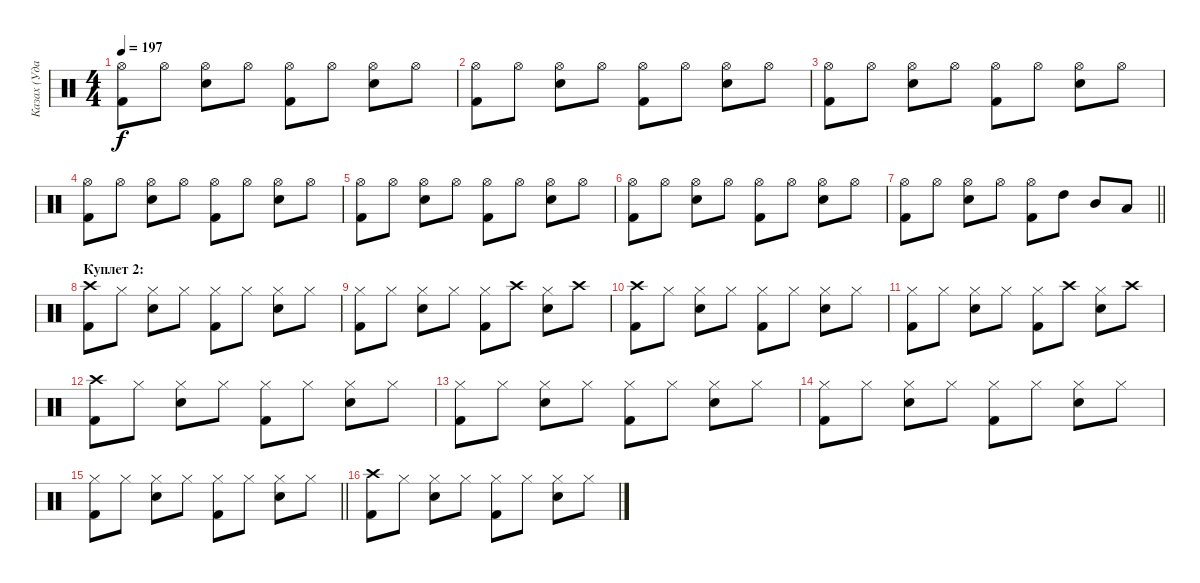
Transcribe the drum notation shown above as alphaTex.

\track ("Казах (Ударные)" "Казах (Уда") {instrument percussion}
\staff {score}
\articulation defaults
\ts (4 4)
\tempo 197
\clef neutral
\ks c
("Hi-Hat (open)" "Kick (hit) 2").8{dy f} "Hi-Hat (open)".8 ("Hi-Hat (open)" "Electric Snare (hit)").8 "Hi-Hat (open)".8 ("Hi-Hat (open)" "Kick (hit) 2").8 "Hi-Hat (open)".8 ("Hi-Hat (open)" "Electric Snare (hit)").8 "Hi-Hat (open)".8 |
("Hi-Hat (open)" "Kick (hit) 2").8 "Hi-Hat (open)".8 ("Hi-Hat (open)" "Electric Snare (hit)").8 "Hi-Hat (open)".8 ("Hi-Hat (open)" "Kick (hit) 2").8 "Hi-Hat (open)".8 ("Hi-Hat (open)" "Electric Snare (hit)").8 "Hi-Hat (open)".8 |
("Hi-Hat (open)" "Kick (hit) 2").8 "Hi-Hat (open)".8 ("Hi-Hat (open)" "Electric Snare (hit)").8 "Hi-Hat (open)".8 ("Hi-Hat (open)" "Kick (hit) 2").8 "Hi-Hat (open)".8 ("Hi-Hat (open)" "Electric Snare (hit)").8 "Hi-Hat (open)".8 |
("Hi-Hat (open)" "Kick (hit) 2").8 "Hi-Hat (open)".8 ("Hi-Hat (open)" "Electric Snare (hit)").8 "Hi-Hat (open)".8 ("Hi-Hat (open)" "Kick (hit) 2").8 "Hi-Hat (open)".8 ("Hi-Hat (open)" "Electric Snare (hit)").8 "Hi-Hat (open)".8 |
("Hi-Hat (open)" "Kick (hit) 2").8 "Hi-Hat (open)".8 ("Hi-Hat (open)" "Electric Snare (hit)").8 "Hi-Hat (open)".8 ("Hi-Hat (open)" "Kick (hit) 2").8 "Hi-Hat (open)".8 ("Hi-Hat (open)" "Electric Snare (hit)").8 "Hi-Hat (open)".8 |
("Hi-Hat (open)" "Kick (hit) 2").8 "Hi-Hat (open)".8 ("Hi-Hat (open)" "Electric Snare (hit)").8 "Hi-Hat (open)".8 ("Hi-Hat (open)" "Kick (hit) 2").8 "Hi-Hat (open)".8 ("Hi-Hat (open)" "Electric Snare (hit)").8 "Hi-Hat (open)".8 |
\barLineRight lightlight
("Hi-Hat (open)" "Kick (hit) 2").8 "Hi-Hat (open)".8 ("Hi-Hat (open)" "Electric Snare (hit)").8 "Hi-Hat (open)".8 ("Hi-Hat (open)" "Kick (hit) 2").8 "High Tom (hit)".8 "Mid Tom (hit)".8 "Low Tom (hit)".8 |
\section ("" "Куплет 2:")
("Crash high (hit)" "Kick (hit) 2").8 "Hi-Hat (closed)".8 ("Hi-Hat (closed)" "Electric Snare (hit)").8 "Hi-Hat (closed)".8 ("Hi-Hat (closed)" "Kick (hit) 2").8 "Hi-Hat (closed)".8 ("Hi-Hat (closed)" "Electric Snare (hit)").8 "Hi-Hat (closed)".8 |
("Hi-Hat (closed)" "Kick (hit) 2").8 "Hi-Hat (closed)".8 ("Hi-Hat (closed)" "Electric Snare (hit)").8 "Hi-Hat (closed)".8 ("Hi-Hat (closed)" "Kick (hit) 2").8 "Crash high (hit)".8 ("Hi-Hat (closed)" "Electric Snare (hit)").8 "Crash high (hit)".8 |
("Crash high (hit)" "Kick (hit) 2").8 "Hi-Hat (closed)".8 ("Hi-Hat (closed)" "Electric Snare (hit)").8 "Hi-Hat (closed)".8 ("Hi-Hat (closed)" "Kick (hit) 2").8 "Hi-Hat (closed)".8 ("Hi-Hat (closed)" "Electric Snare (hit)").8 "Hi-Hat (closed)".8 |
("Hi-Hat (closed)" "Kick (hit) 2").8 "Hi-Hat (closed)".8 ("Hi-Hat (closed)" "Electric Snare (hit)").8 "Hi-Hat (closed)".8 ("Hi-Hat (closed)" "Kick (hit) 2").8 "Crash high (hit)".8 ("Hi-Hat (closed)" "Electric Snare (hit)").8 "Crash high (hit)".8 |
("Crash high (hit)" "Kick (hit) 2").8 "Hi-Hat (closed)".8 ("Hi-Hat (closed)" "Electric Snare (hit)").8 "Hi-Hat (closed)".8 ("Hi-Hat (closed)" "Kick (hit) 2").8 "Hi-Hat (closed)".8 ("Hi-Hat (closed)" "Electric Snare (hit)").8 "Hi-Hat (closed)".8 |
("Hi-Hat (closed)" "Kick (hit) 2").8 "Hi-Hat (closed)".8 ("Hi-Hat (closed)" "Electric Snare (hit)").8 "Hi-Hat (closed)".8 ("Hi-Hat (closed)" "Kick (hit) 2").8 "Hi-Hat (closed)".8 ("Hi-Hat (closed)" "Electric Snare (hit)").8 "Hi-Hat (closed)".8 |
("Hi-Hat (closed)" "Kick (hit) 2").8 "Hi-Hat (closed)".8 ("Hi-Hat (closed)" "Electric Snare (hit)").8 "Hi-Hat (closed)".8 ("Hi-Hat (closed)" "Kick (hit) 2").8 "Hi-Hat (closed)".8 ("Hi-Hat (closed)" "Electric Snare (hit)").8 "Hi-Hat (closed)".8 |
\barLineRight lightlight
("Hi-Hat (closed)" "Kick (hit) 2").8 "Hi-Hat (closed)".8 ("Hi-Hat (closed)" "Electric Snare (hit)").8 "Hi-Hat (closed)".8 ("Hi-Hat (closed)" "Kick (hit) 2").8 "Hi-Hat (closed)".8 ("Hi-Hat (closed)" "Electric Snare (hit)").8 "Hi-Hat (closed)".8 |
("Crash high (hit)" "Kick (hit) 2").8 "Hi-Hat (closed)".8 ("Hi-Hat (closed)" "Electric Snare (hit)").8 "Hi-Hat (closed)".8 ("Hi-Hat (closed)" "Kick (hit) 2").8 "Hi-Hat (closed)".8 ("Hi-Hat (closed)" "Electric Snare (hit)").8 "Hi-Hat (closed)".8
